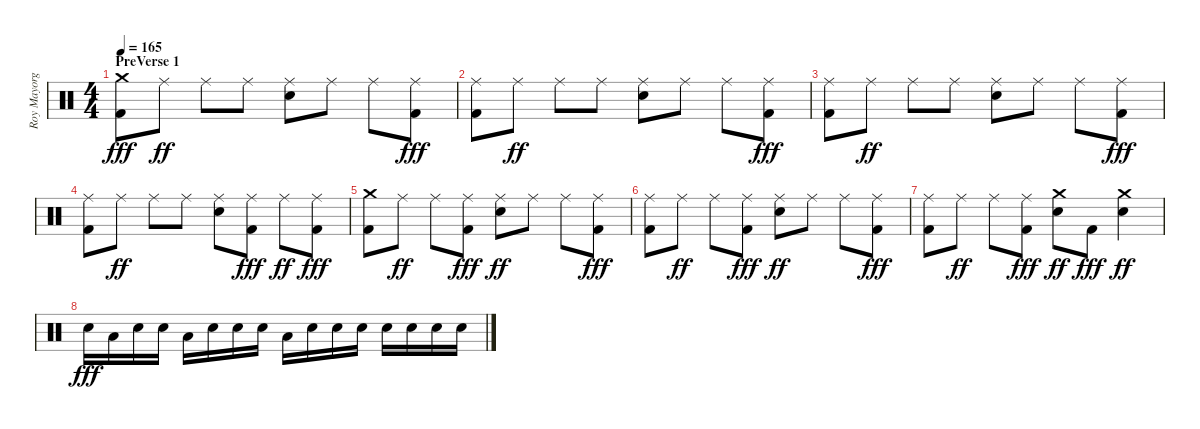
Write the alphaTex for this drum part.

\track ("Roy Mayorga" "Roy Mayorg") {instrument percussion}
\staff {score}
\articulation defaults
\ts (4 4)
\section ("" "PreVerse 1")
\tempo 165
\clef neutral
\ks c
("Crash medium (hit)" "Kick (hit) 2").8{dy fff} "Ride (middle)".8{dy ff} "Ride (middle)".8 "Ride (middle)".8 ("Ride (middle)" "Electric Snare (hit)").8 "Ride (middle)".8 "Ride (middle)".8 ("Ride (middle)" "Kick (hit) 2").8{dy fff} |
("Ride (middle)" "Kick (hit) 2").8 "Ride (middle)".8{dy ff} "Ride (middle)".8 "Ride (middle)".8 ("Ride (middle)" "Electric Snare (hit)").8 "Ride (middle)".8 "Ride (middle)".8 ("Ride (middle)" "Kick (hit) 2").8{dy fff} |
("Ride (middle)" "Kick (hit) 2").8 "Ride (middle)".8{dy ff} "Ride (middle)".8 "Ride (middle)".8 ("Ride (middle)" "Electric Snare (hit)").8 "Ride (middle)".8 "Ride (middle)".8 ("Ride (middle)" "Kick (hit) 2").8{dy fff} |
("Ride (middle)" "Kick (hit) 2").8 "Ride (middle)".8{dy ff} "Ride (middle)".8 "Ride (middle)".8 ("Ride (middle)" "Electric Snare (hit)").8 ("Ride (middle)" "Kick (hit) 2").8{dy fff} "Ride (middle)".8{dy ff} ("Ride (middle)" "Kick (hit) 2").8{dy fff} |
("Crash medium (hit)" "Kick (hit) 2").8 "Ride (middle)".8{dy ff} "Ride (middle)".8 ("Ride (middle)" "Kick (hit) 2").8{dy fff} ("Ride (middle)" "Electric Snare (hit)").8{dy ff} "Ride (middle)".8 "Ride (middle)".8 ("Ride (middle)" "Kick (hit) 2").8{dy fff} |
("Ride (middle)" "Kick (hit) 2").8 "Ride (middle)".8{dy ff} "Ride (middle)".8 ("Ride (middle)" "Kick (hit) 2").8{dy fff} ("Ride (middle)" "Electric Snare (hit)").8{dy ff} "Ride (middle)".8 "Ride (middle)".8 ("Ride (middle)" "Kick (hit) 2").8{dy fff} |
("Ride (middle)" "Kick (hit) 2").8 "Ride (middle)".8{dy ff} "Ride (middle)".8 ("Ride (middle)" "Kick (hit) 2").8{dy fff} ("Crash medium (hit)" "Electric Snare (hit)").8{dy ff} "Kick (hit) 2".8{dy fff} ("Crash medium (hit)" "Electric Snare (hit)").4{dy ff} |
"Electric Snare (hit)".16{dy fff} "Low Tom (hit)".16 "Electric Snare (hit)".16 "Electric Snare (hit)".16 "Low Tom (hit)".16 "Electric Snare (hit)".16 "Electric Snare (hit)".16 "Electric Snare (hit)".16 "Low Tom (hit)".16 "Electric Snare (hit)".16 "Electric Snare (hit)".16 "Electric Snare (hit)".16 "Electric Snare (hit)".16 "Electric Snare (hit)".16 "Electric Snare (hit)".16 "Electric Snare (hit)".16
